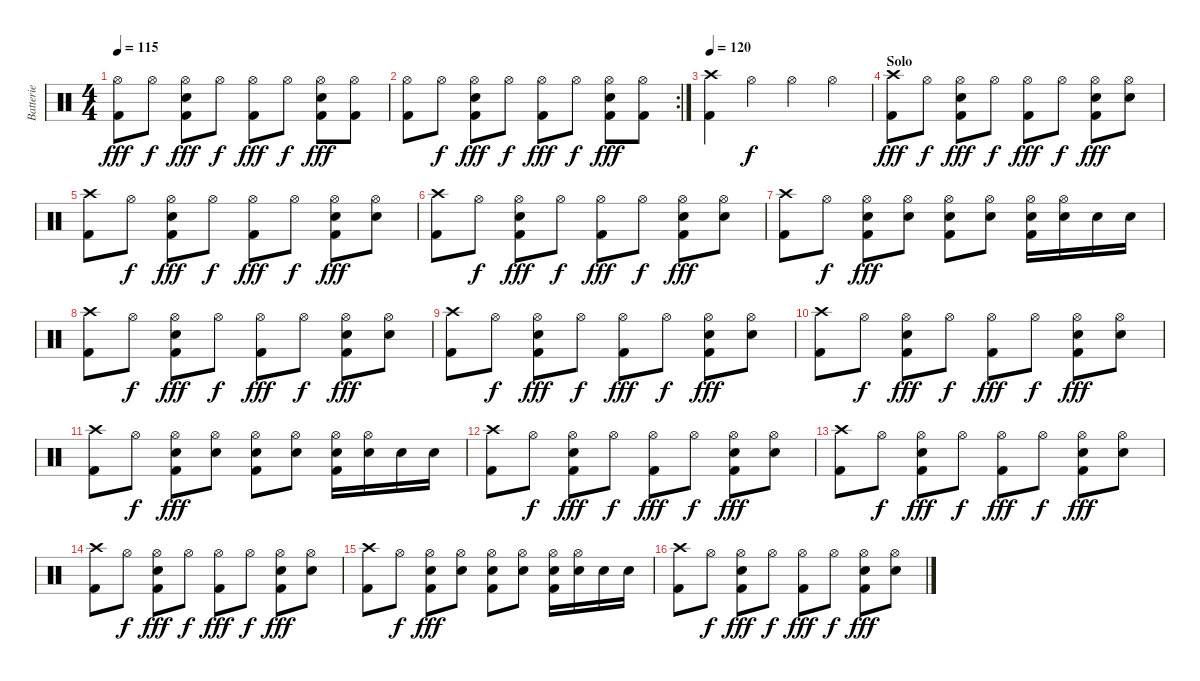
\track ("Batterie" "Batterie") {instrument percussion}
\staff {score}
\articulation defaults
\ts (4 4)
\tempo 115
\clef neutral
\ks c
("Hi-Hat (open)" "Kick (hit) 2").8{dy fff} "Hi-Hat (open)".8{dy f} ("Hi-Hat (open)" "Kick (hit) 2" "Electric Snare (hit)").8{dy fff} "Hi-Hat (open)".8{dy f} ("Hi-Hat (open)" "Kick (hit) 2").8{dy fff} "Hi-Hat (open)".8{dy f} ("Hi-Hat (open)" "Kick (hit) 2" "Electric Snare (hit)").8{dy fff} ("Hi-Hat (open)" "Kick (hit) 2").8 |
\rc 2
("Hi-Hat (open)" "Kick (hit) 2").8 "Hi-Hat (open)".8{dy f} ("Hi-Hat (open)" "Kick (hit) 2" "Electric Snare (hit)").8{dy fff} "Hi-Hat (open)".8{dy f} ("Hi-Hat (open)" "Kick (hit) 2").8{dy fff} "Hi-Hat (open)".8{dy f} ("Hi-Hat (open)" "Kick (hit) 2" "Electric Snare (hit)").8{dy fff} ("Hi-Hat (open)" "Kick (hit) 2").8 |
\tempo 120
("Crash high (hit)" "Kick (hit) 2").4 "Hi-Hat (open)".4{dy f} "Hi-Hat (open)".4 "Hi-Hat (open)".4 |
\section ("" "Solo")
("Crash high (hit)" "Kick (hit) 2").8{dy fff} "Hi-Hat (open)".8{dy f} ("Hi-Hat (open)" "Kick (hit) 2" "Electric Snare (hit)").8{dy fff} "Hi-Hat (open)".8{dy f} ("Hi-Hat (open)" "Kick (hit) 2").8{dy fff} "Hi-Hat (open)".8{dy f} ("Hi-Hat (open)" "Kick (hit) 2" "Electric Snare (hit)").8{dy fff} ("Hi-Hat (open)" "Electric Snare (hit)").8 |
("Crash high (hit)" "Kick (hit) 2").8 "Hi-Hat (open)".8{dy f} ("Hi-Hat (open)" "Kick (hit) 2" "Electric Snare (hit)").8{dy fff} "Hi-Hat (open)".8{dy f} ("Hi-Hat (open)" "Kick (hit) 2").8{dy fff} "Hi-Hat (open)".8{dy f} ("Hi-Hat (open)" "Kick (hit) 2" "Electric Snare (hit)").8{dy fff} ("Hi-Hat (open)" "Electric Snare (hit)").8 |
("Crash high (hit)" "Kick (hit) 2").8 "Hi-Hat (open)".8{dy f} ("Hi-Hat (open)" "Kick (hit) 2" "Electric Snare (hit)").8{dy fff} "Hi-Hat (open)".8{dy f} ("Hi-Hat (open)" "Kick (hit) 2").8{dy fff} "Hi-Hat (open)".8{dy f} ("Hi-Hat (open)" "Kick (hit) 2" "Electric Snare (hit)").8{dy fff} ("Hi-Hat (open)" "Electric Snare (hit)").8 |
("Crash high (hit)" "Kick (hit) 2").8 "Hi-Hat (open)".8{dy f} ("Hi-Hat (open)" "Kick (hit) 2" "Electric Snare (hit)").8{dy fff} ("Hi-Hat (open)" "Electric Snare (hit)").8 ("Hi-Hat (open)" "Kick (hit) 2" "Electric Snare (hit)").8 ("Hi-Hat (open)" "Electric Snare (hit)").8 ("Hi-Hat (open)" "Kick (hit) 2" "Electric Snare (hit)").16 ("Hi-Hat (open)" "Electric Snare (hit)").16 "Electric Snare (hit)".16 "Electric Snare (hit)".16 |
("Crash high (hit)" "Kick (hit) 2").8 "Hi-Hat (open)".8{dy f} ("Hi-Hat (open)" "Kick (hit) 2" "Electric Snare (hit)").8{dy fff} "Hi-Hat (open)".8{dy f} ("Hi-Hat (open)" "Kick (hit) 2").8{dy fff} "Hi-Hat (open)".8{dy f} ("Hi-Hat (open)" "Kick (hit) 2" "Electric Snare (hit)").8{dy fff} ("Hi-Hat (open)" "Electric Snare (hit)").8 |
("Crash high (hit)" "Kick (hit) 2").8 "Hi-Hat (open)".8{dy f} ("Hi-Hat (open)" "Kick (hit) 2" "Electric Snare (hit)").8{dy fff} "Hi-Hat (open)".8{dy f} ("Hi-Hat (open)" "Kick (hit) 2").8{dy fff} "Hi-Hat (open)".8{dy f} ("Hi-Hat (open)" "Kick (hit) 2" "Electric Snare (hit)").8{dy fff} ("Hi-Hat (open)" "Electric Snare (hit)").8 |
("Crash high (hit)" "Kick (hit) 2").8 "Hi-Hat (open)".8{dy f} ("Hi-Hat (open)" "Kick (hit) 2" "Electric Snare (hit)").8{dy fff} "Hi-Hat (open)".8{dy f} ("Hi-Hat (open)" "Kick (hit) 2").8{dy fff} "Hi-Hat (open)".8{dy f} ("Hi-Hat (open)" "Kick (hit) 2" "Electric Snare (hit)").8{dy fff} ("Hi-Hat (open)" "Electric Snare (hit)").8 |
("Crash high (hit)" "Kick (hit) 2").8 "Hi-Hat (open)".8{dy f} ("Hi-Hat (open)" "Kick (hit) 2" "Electric Snare (hit)").8{dy fff} ("Hi-Hat (open)" "Electric Snare (hit)").8 ("Hi-Hat (open)" "Kick (hit) 2" "Electric Snare (hit)").8 ("Hi-Hat (open)" "Electric Snare (hit)").8 ("Hi-Hat (open)" "Kick (hit) 2" "Electric Snare (hit)").16 ("Hi-Hat (open)" "Electric Snare (hit)").16 "Electric Snare (hit)".16 "Electric Snare (hit)".16 |
("Crash high (hit)" "Kick (hit) 2").8 "Hi-Hat (open)".8{dy f} ("Hi-Hat (open)" "Kick (hit) 2" "Electric Snare (hit)").8{dy fff} "Hi-Hat (open)".8{dy f} ("Hi-Hat (open)" "Kick (hit) 2").8{dy fff} "Hi-Hat (open)".8{dy f} ("Hi-Hat (open)" "Kick (hit) 2" "Electric Snare (hit)").8{dy fff} ("Hi-Hat (open)" "Electric Snare (hit)").8 |
("Crash high (hit)" "Kick (hit) 2").8 "Hi-Hat (open)".8{dy f} ("Hi-Hat (open)" "Kick (hit) 2" "Electric Snare (hit)").8{dy fff} "Hi-Hat (open)".8{dy f} ("Hi-Hat (open)" "Kick (hit) 2").8{dy fff} "Hi-Hat (open)".8{dy f} ("Hi-Hat (open)" "Kick (hit) 2" "Electric Snare (hit)").8{dy fff} ("Hi-Hat (open)" "Electric Snare (hit)").8 |
("Crash high (hit)" "Kick (hit) 2").8 "Hi-Hat (open)".8{dy f} ("Hi-Hat (open)" "Kick (hit) 2" "Electric Snare (hit)").8{dy fff} "Hi-Hat (open)".8{dy f} ("Hi-Hat (open)" "Kick (hit) 2").8{dy fff} "Hi-Hat (open)".8{dy f} ("Hi-Hat (open)" "Kick (hit) 2" "Electric Snare (hit)").8{dy fff} ("Hi-Hat (open)" "Electric Snare (hit)").8 |
("Crash high (hit)" "Kick (hit) 2").8 "Hi-Hat (open)".8{dy f} ("Hi-Hat (open)" "Kick (hit) 2" "Electric Snare (hit)").8{dy fff} ("Hi-Hat (open)" "Electric Snare (hit)").8 ("Hi-Hat (open)" "Kick (hit) 2" "Electric Snare (hit)").8 ("Hi-Hat (open)" "Electric Snare (hit)").8 ("Hi-Hat (open)" "Kick (hit) 2" "Electric Snare (hit)").16 ("Hi-Hat (open)" "Electric Snare (hit)").16 "Electric Snare (hit)".16 "Electric Snare (hit)".16 |
("Crash high (hit)" "Kick (hit) 2").8 "Hi-Hat (open)".8{dy f} ("Hi-Hat (open)" "Kick (hit) 2" "Electric Snare (hit)").8{dy fff} "Hi-Hat (open)".8{dy f} ("Hi-Hat (open)" "Kick (hit) 2").8{dy fff} "Hi-Hat (open)".8{dy f} ("Hi-Hat (open)" "Kick (hit) 2" "Electric Snare (hit)").8{dy fff} ("Hi-Hat (open)" "Electric Snare (hit)").8
